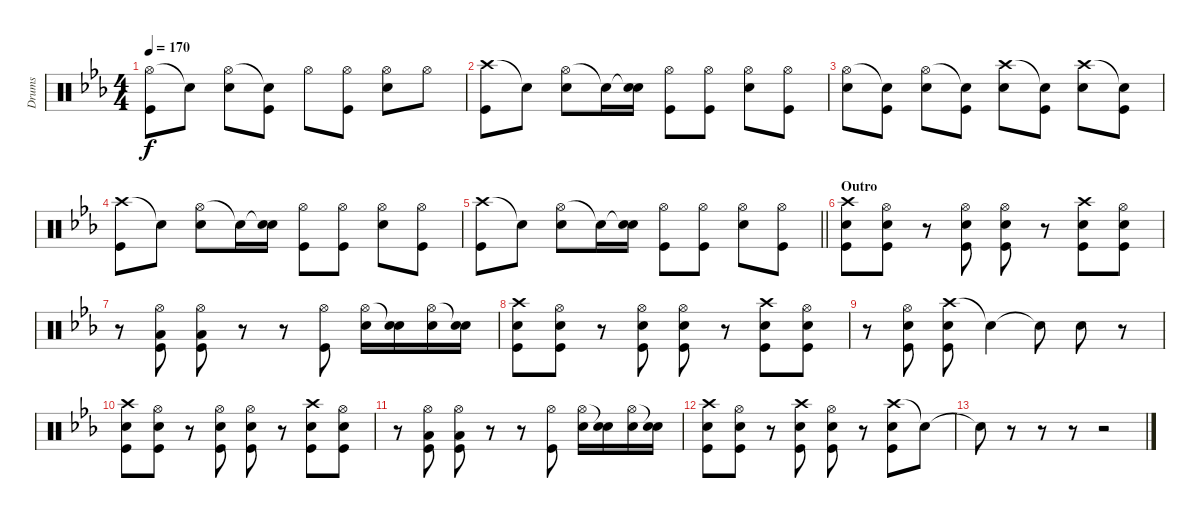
\track ("Drums" "Drums") {solo instrument percussion}
\staff {score}
\articulation defaults
\ts (4 4)
\tempo 170
\clef neutral
\ks eb
("Hi-Hat (open)" "Kick (hit)").8{dy f} "Snare (hit)"{t}.8 ("Hi-Hat (open)" "Snare (hit) 2").8 ("Snare (hit)"{t} "Kick (hit)").8 "Hi-Hat (open)".8 ("Hi-Hat (open)" "Kick (hit)").8 ("Hi-Hat (open)" "Snare (hit) 2").8 "Hi-Hat (open)".8 |
("Crash high (hit)" "Kick (hit)").8 "Snare (hit)"{t}.8 ("Hi-Hat (open)" "Snare (hit) 2").8 "Snare (hit)"{t}.16 ("Snare (hit)"{t} "Snare (hit) 2").16 ("Hi-Hat (open)" "Kick (hit)").8 ("Hi-Hat (open)" "Kick (hit)").8 ("Hi-Hat (open)" "Snare (hit) 2").8 ("Hi-Hat (open)" "Kick (hit)").8 |
("Hi-Hat (open)" "Snare (hit) 2").8 ("Snare (hit)"{t} "Kick (hit)").8 ("Hi-Hat (open)" "Snare (hit) 2").8 ("Snare (hit)"{t} "Kick (hit)").8 ("Crash high (hit)" "Snare (hit) 2").8 ("Snare (hit)"{t} "Kick (hit)").8 ("Crash high (hit)" "Snare (hit) 2").8 ("Snare (hit)"{t} "Kick (hit)").8 |
("Crash high (hit)" "Kick (hit)").8 "Snare (hit)"{t}.8 ("Hi-Hat (open)" "Snare (hit) 2").8 "Snare (hit)"{t}.16 ("Snare (hit)"{t} "Snare (hit) 2").16 ("Hi-Hat (open)" "Kick (hit)").8 ("Hi-Hat (open)" "Kick (hit)").8 ("Hi-Hat (open)" "Snare (hit) 2").8 ("Hi-Hat (open)" "Kick (hit)").8 |
\barLineRight lightlight
("Crash high (hit)" "Kick (hit)").8 "Snare (hit)"{t}.8 ("Hi-Hat (open)" "Snare (hit) 2").8 "Snare (hit)"{t}.16 ("Snare (hit)"{t} "Snare (hit) 2").16 ("Hi-Hat (open)" "Kick (hit)").8 ("Hi-Hat (open)" "Kick (hit)").8 ("Hi-Hat (open)" "Snare (hit) 2").8 ("Hi-Hat (open)" "Kick (hit)").8 |
\section ("" "Outro")
("Crash high (hit)" "Snare (hit) 2" "Kick (hit)").8 ("Hi-Hat (open)" "Snare (hit) 2" "Kick (hit)").8 r.8 ("Hi-Hat (open)" "Snare (hit) 2" "Kick (hit)").8 ("Hi-Hat (open)" "Snare (hit) 2" "Kick (hit)").8 r.8 ("Crash high (hit)" "Snare (hit) 2" "Kick (hit)").8 ("Hi-Hat (open)" "Snare (hit) 2" "Kick (hit)").8 |
r.8 ("Hi-Hat (open)" "Low Tom (hit)" "Kick (hit)").8 ("Hi-Hat (open)" "Low Tom (hit)" "Kick (hit)").8 r.8 r.8 ("Hi-Hat (open)" "Kick (hit)").8 ("Hi-Hat (open)" "Snare (hit) 2").16 ("Snare (hit)"{t} "Snare (hit) 2").16 ("Hi-Hat (open)" "Snare (hit) 2").16 ("Snare (hit)"{t} "Snare (hit) 2").16 |
("Crash high (hit)" "Snare (hit) 2" "Kick (hit)").8 ("Hi-Hat (open)" "Snare (hit) 2" "Kick (hit)").8 r.8 ("Hi-Hat (open)" "Snare (hit) 2" "Kick (hit)").8 ("Hi-Hat (open)" "Snare (hit) 2" "Kick (hit)").8 r.8 ("Crash high (hit)" "Snare (hit) 2" "Kick (hit)").8 ("Hi-Hat (open)" "Snare (hit) 2" "Kick (hit)").8 |
r.8 ("Hi-Hat (open)" "Snare (hit) 2" "Kick (hit)").8 ("Crash high (hit)" "Snare (hit) 2" "Kick (hit)").8 "Snare (hit)"{t}.4 "Snare (hit)"{t}.8 "Snare (hit) 2".8 r.8 |
("Crash high (hit)" "Snare (hit) 2" "Kick (hit)").8 ("Hi-Hat (open)" "Snare (hit) 2" "Kick (hit)").8 r.8 ("Hi-Hat (open)" "Snare (hit) 2" "Kick (hit)").8 ("Hi-Hat (open)" "Snare (hit) 2" "Kick (hit)").8 r.8 ("Crash high (hit)" "Snare (hit) 2" "Kick (hit)").8 ("Hi-Hat (open)" "Snare (hit) 2" "Kick (hit)").8 |
r.8 ("Hi-Hat (open)" "Low Tom (hit)" "Kick (hit)").8 ("Hi-Hat (open)" "Low Tom (hit)" "Kick (hit)").8 r.8 r.8 ("Hi-Hat (open)" "Kick (hit)").8 ("Hi-Hat (open)" "Snare (hit) 2").16 ("Snare (hit)"{t} "Snare (hit) 2").16 ("Hi-Hat (open)" "Snare (hit) 2").16 ("Snare (hit)"{t} "Snare (hit) 2").16 |
("Crash high (hit)" "Snare (hit) 2" "Kick (hit)").8 ("Hi-Hat (open)" "Snare (hit) 2" "Kick (hit)").8 r.8 ("Crash high (hit)" "Snare (hit) 2" "Kick (hit)").8 ("Hi-Hat (open)" "Snare (hit) 2" "Kick (hit)").8 r.8 ("Crash high (hit)" "Snare (hit) 2" "Kick (hit)").8 "Snare (hit)"{t}.8 |
"Snare (hit)"{t}.8 r.8 r.8 r.8 r.2
